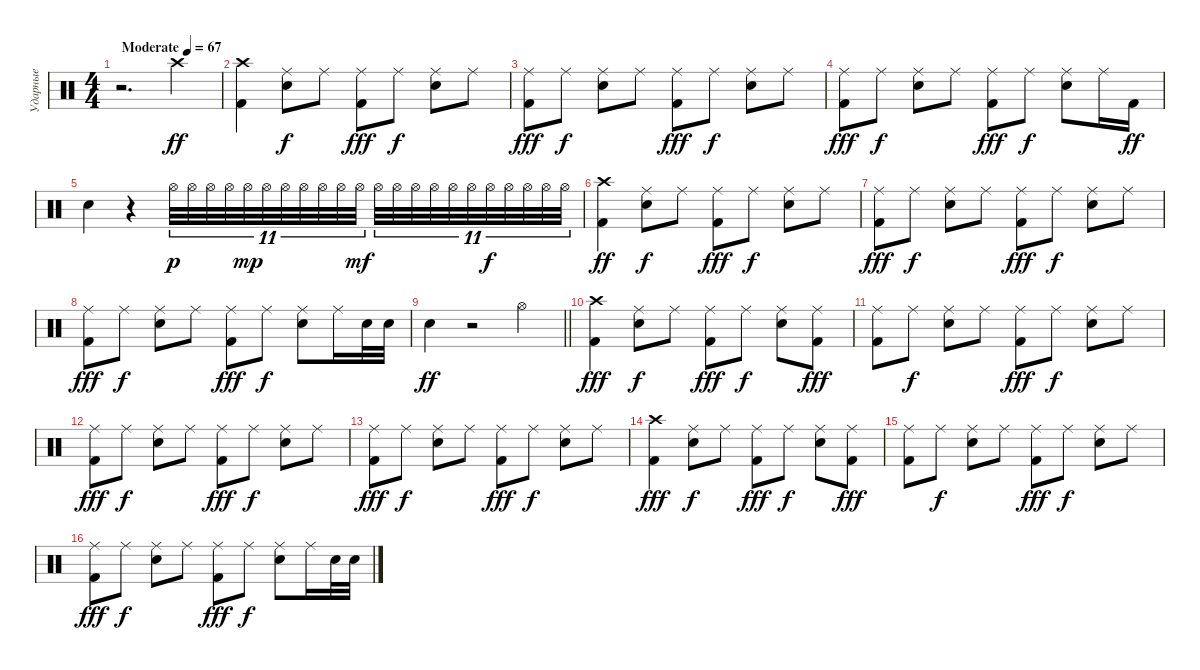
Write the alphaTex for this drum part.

\track ("Ударные" "Ударные") {instrument percussion}
\staff
\articulation defaults
\ts (4 4)
\tempo (67 "Moderate")
\clef neutral
\ks c
r.2{d dy ff} "Crash high (hit)".4 |
("Kick (hit) 2" "Crash high (hit)").4 ("Snare (hit) 2" "Ride (middle)").8{dy f} "Ride (middle)".8 ("Kick (hit) 2" "Ride (middle)").8{dy fff} "Ride (middle)".8{dy f} ("Snare (hit) 2" "Ride (middle)").8 "Ride (middle)".8 |
("Kick (hit) 2" "Ride (middle)").8{dy fff} "Ride (middle)".8{dy f} ("Snare (hit) 2" "Ride (middle)").8 "Ride (middle)".8 ("Kick (hit) 2" "Ride (middle)").8{dy fff} "Ride (middle)".8{dy f} ("Snare (hit) 2" "Ride (middle)").8 "Ride (middle)".8 |
("Kick (hit) 2" "Ride (middle)").8{dy fff} "Ride (middle)".8{dy f} ("Snare (hit) 2" "Ride (middle)").8 "Ride (middle)".8 ("Kick (hit) 2" "Ride (middle)").8{dy fff} "Ride (middle)".8{dy f} ("Snare (hit) 2" "Ride (middle)").8 "Ride (middle)".16 "Kick (hit) 2".16{dy ff} |
"Snare (hit) 2".4 r.4 "Hi-Hat (open)".32{tu (11 8) dy p} "Hi-Hat (open)".32{tu (11 8)} "Hi-Hat (open)".32{tu (11 8)} "Hi-Hat (open)".32{tu (11 8)} "Hi-Hat (open)".32{tu (11 8) dy mp} "Hi-Hat (open)".32{tu (11 8)} "Hi-Hat (open)".32{tu (11 8)} "Hi-Hat (open)".32{tu (11 8)} "Hi-Hat (open)".32{tu (11 8)} "Hi-Hat (open)".32{tu (11 8)} "Hi-Hat (open)".32{tu (11 8) dy mf} "Hi-Hat (open)".32{tu (11 8)} "Hi-Hat (open)".32{tu (11 8)} "Hi-Hat (open)".32{tu (11 8)} "Hi-Hat (open)".32{tu (11 8)} "Hi-Hat (open)".32{tu (11 8)} "Hi-Hat (open)".32{tu (11 8)} "Hi-Hat (open)".32{tu (11 8) dy f} "Hi-Hat (open)".32{tu (11 8)} "Hi-Hat (open)".32{tu (11 8)} "Hi-Hat (open)".32{tu (11 8)} "Hi-Hat (open)".32{tu (11 8)} |
("Kick (hit) 2" "Crash high (hit)").4{dy ff} ("Snare (hit) 2" "Ride (middle)").8{dy f} "Ride (middle)".8 ("Kick (hit) 2" "Ride (middle)").8{dy fff} "Ride (middle)".8{dy f} ("Snare (hit) 2" "Ride (middle)").8 "Ride (middle)".8 |
("Kick (hit) 2" "Ride (middle)").8{dy fff} "Ride (middle)".8{dy f} ("Snare (hit) 2" "Ride (middle)").8 "Ride (middle)".8 ("Kick (hit) 2" "Ride (middle)").8{dy fff} "Ride (middle)".8{dy f} ("Snare (hit) 2" "Ride (middle)").8 "Ride (middle)".8 |
("Kick (hit) 2" "Ride (middle)").8{dy fff} "Ride (middle)".8{dy f} ("Snare (hit) 2" "Ride (middle)").8 "Ride (middle)".8 ("Kick (hit) 2" "Ride (middle)").8{dy fff} "Ride (middle)".8{dy f} ("Snare (hit) 2" "Ride (middle)").8 "Ride (middle)".16 "Electric Snare (hit)".32 "Electric Snare (hit)".32 |
\barLineRight lightlight "Snare (hit) 2".4{dy ff}
r.2 "Hi-Hat (open)".4 |
("Kick (hit) 2" "Crash high (hit)").4{dy fff} ("Snare (hit) 2" "Ride (middle)").8{dy f} "Ride (middle)".8 ("Kick (hit) 2" "Ride (middle)").8{dy fff} "Ride (middle)".8{dy f} ("Snare (hit) 2" "Ride (middle)").8 ("Kick (hit) 2" "Ride (middle)").8{dy fff} |
("Kick (hit) 2" "Ride (middle)").8 "Ride (middle)".8{dy f} ("Snare (hit) 2" "Ride (middle)").8 "Ride (middle)".8 ("Kick (hit) 2" "Ride (middle)").8{dy fff} "Ride (middle)".8{dy f} ("Snare (hit) 2" "Ride (middle)").8 "Ride (middle)".8 |
("Kick (hit) 2" "Ride (middle)").8{dy fff} "Ride (middle)".8{dy f} ("Snare (hit) 2" "Ride (middle)").8 "Ride (middle)".8 ("Kick (hit) 2" "Ride (middle)").8{dy fff} "Ride (middle)".8{dy f} ("Snare (hit) 2" "Ride (middle)").8 "Ride (middle)".8 |
("Kick (hit) 2" "Ride (middle)").8{dy fff} "Ride (middle)".8{dy f} ("Snare (hit) 2" "Ride (middle)").8 "Ride (middle)".8 ("Kick (hit) 2" "Ride (middle)").8{dy fff} "Ride (middle)".8{dy f} ("Snare (hit) 2" "Ride (middle)").8 "Ride (middle)".8 |
("Kick (hit) 2" "Crash high (hit)").4{dy fff} ("Snare (hit) 2" "Ride (middle)").8{dy f} "Ride (middle)".8 ("Kick (hit) 2" "Ride (middle)").8{dy fff} "Ride (middle)".8{dy f} ("Snare (hit) 2" "Ride (middle)").8 ("Kick (hit) 2" "Ride (middle)").8{dy fff} |
("Kick (hit) 2" "Ride (middle)").8 "Ride (middle)".8{dy f} ("Snare (hit) 2" "Ride (middle)").8 "Ride (middle)".8 ("Kick (hit) 2" "Ride (middle)").8{dy fff} "Ride (middle)".8{dy f} ("Snare (hit) 2" "Ride (middle)").8 "Ride (middle)".8 |
("Kick (hit) 2" "Ride (middle)").8{dy fff} "Ride (middle)".8{dy f} ("Snare (hit) 2" "Ride (middle)").8 "Ride (middle)".8 ("Kick (hit) 2" "Ride (middle)").8{dy fff} "Ride (middle)".8{dy f} ("Snare (hit) 2" "Ride (middle)").8 "Ride (middle)".16 "Electric Snare (hit)".32 "Electric Snare (hit)".32
